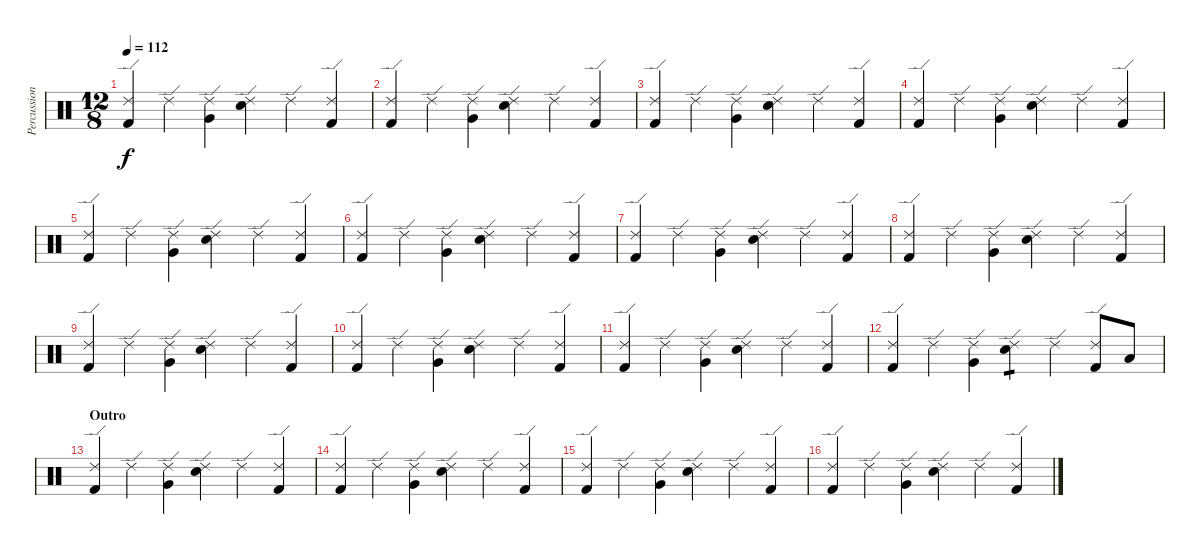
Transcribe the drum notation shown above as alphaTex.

\track ("Percussion" "Percussion") {instrument percussion}
\staff {score}
\articulation defaults
\ts (12 8)
\tempo 112
\clef neutral
\ks c
("Ride (edge) 2" "Kick (hit) 2").4{dy f} "Ride (edge) 2".4 ("Ride (edge) 2" "Very Low Tom (hit)").4 ("Ride (edge) 2" "Electric Snare (hit)").4 "Ride (edge) 2".4 ("Ride (edge) 2" "Kick (hit) 2").4 |
("Ride (edge) 2" "Kick (hit) 2").4 "Ride (edge) 2".4 ("Ride (edge) 2" "Very Low Tom (hit)").4 ("Ride (edge) 2" "Electric Snare (hit)").4 "Ride (edge) 2".4 ("Ride (edge) 2" "Kick (hit) 2").4 |
("Ride (edge) 2" "Kick (hit) 2").4 "Ride (edge) 2".4 ("Ride (edge) 2" "Very Low Tom (hit)").4 ("Ride (edge) 2" "Electric Snare (hit)").4 "Ride (edge) 2".4 ("Ride (edge) 2" "Kick (hit) 2").4 |
("Ride (edge) 2" "Kick (hit) 2").4 "Ride (edge) 2".4 ("Ride (edge) 2" "Very Low Tom (hit)").4 ("Ride (edge) 2" "Electric Snare (hit)").4 "Ride (edge) 2".4 ("Ride (edge) 2" "Kick (hit) 2").4 |
("Ride (edge) 2" "Kick (hit) 2").4 "Ride (edge) 2".4 ("Ride (edge) 2" "Very Low Tom (hit)").4 ("Ride (edge) 2" "Electric Snare (hit)").4 "Ride (edge) 2".4 ("Ride (edge) 2" "Kick (hit) 2").4 |
("Ride (edge) 2" "Kick (hit) 2").4 "Ride (edge) 2".4 ("Ride (edge) 2" "Very Low Tom (hit)").4 ("Ride (edge) 2" "Electric Snare (hit)").4 "Ride (edge) 2".4 ("Ride (edge) 2" "Kick (hit) 2").4 |
("Ride (edge) 2" "Kick (hit) 2").4 "Ride (edge) 2".4 ("Ride (edge) 2" "Very Low Tom (hit)").4 ("Ride (edge) 2" "Electric Snare (hit)").4 "Ride (edge) 2".4 ("Ride (edge) 2" "Kick (hit) 2").4 |
("Ride (edge) 2" "Kick (hit) 2").4 "Ride (edge) 2".4 ("Ride (edge) 2" "Very Low Tom (hit)").4 ("Ride (edge) 2" "Electric Snare (hit)").4 "Ride (edge) 2".4 ("Ride (edge) 2" "Kick (hit) 2").4 |
("Ride (edge) 2" "Kick (hit) 2").4 "Ride (edge) 2".4 ("Ride (edge) 2" "Very Low Tom (hit)").4 ("Ride (edge) 2" "Electric Snare (hit)").4 "Ride (edge) 2".4 ("Ride (edge) 2" "Kick (hit) 2").4 |
("Ride (edge) 2" "Kick (hit) 2").4 "Ride (edge) 2".4 ("Ride (edge) 2" "Very Low Tom (hit)").4 ("Ride (edge) 2" "Electric Snare (hit)").4 "Ride (edge) 2".4 ("Ride (edge) 2" "Kick (hit) 2").4 |
("Ride (edge) 2" "Kick (hit) 2").4 "Ride (edge) 2".4 ("Ride (edge) 2" "Very Low Tom (hit)").4 ("Ride (edge) 2" "Electric Snare (hit)").4 "Ride (edge) 2".4 ("Ride (edge) 2" "Kick (hit) 2").4 |
("Ride (edge) 2" "Kick (hit) 2").4 "Ride (edge) 2".4 ("Ride (edge) 2" "Very Low Tom (hit)").4 ("Ride (edge) 2" "Electric Snare (hit)").4{tp 1} "Ride (edge) 2".4 ("Ride (edge) 2" "Kick (hit) 2").8 "Low Tom (hit)".8 |
\section ("" "Outro")
("Ride (edge) 2" "Kick (hit) 2").4 "Ride (edge) 2".4 ("Ride (edge) 2" "Very Low Tom (hit)").4 ("Ride (edge) 2" "Electric Snare (hit)").4 "Ride (edge) 2".4 ("Ride (edge) 2" "Kick (hit) 2").4 |
("Ride (edge) 2" "Kick (hit) 2").4 "Ride (edge) 2".4 ("Ride (edge) 2" "Very Low Tom (hit)").4 ("Ride (edge) 2" "Electric Snare (hit)").4 "Ride (edge) 2".4 ("Ride (edge) 2" "Kick (hit) 2").4 |
("Ride (edge) 2" "Kick (hit) 2").4 "Ride (edge) 2".4 ("Ride (edge) 2" "Very Low Tom (hit)").4 ("Ride (edge) 2" "Electric Snare (hit)").4 "Ride (edge) 2".4 ("Ride (edge) 2" "Kick (hit) 2").4 |
("Ride (edge) 2" "Kick (hit) 2").4 "Ride (edge) 2".4 ("Ride (edge) 2" "Very Low Tom (hit)").4 ("Ride (edge) 2" "Electric Snare (hit)").4 "Ride (edge) 2".4 ("Ride (edge) 2" "Kick (hit) 2").4
